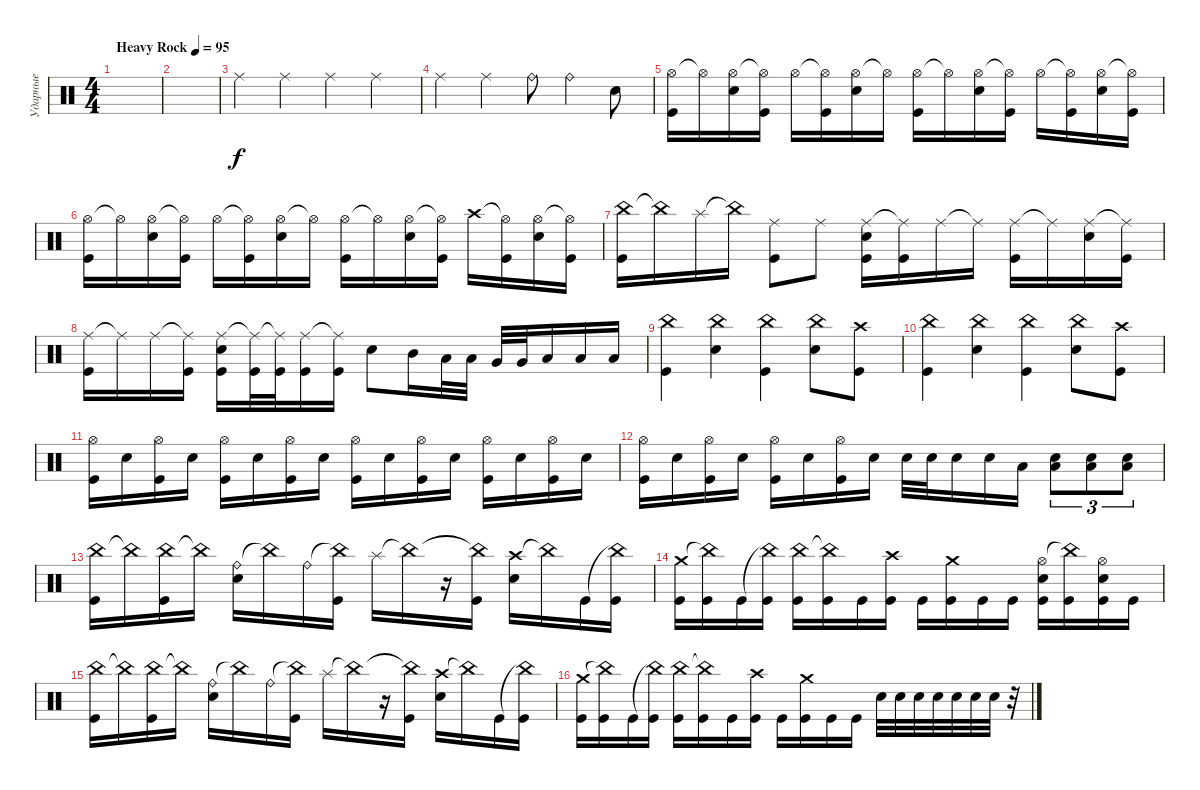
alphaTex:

\track ("Ударные" "Ударные") {instrument percussion}
\staff {score}
\articulation defaults
\ts (4 4)
\tempo (95 "Heavy Rock")
\clef neutral
\ks c
|
|
"Ride (middle)".4 "Ride (middle)".4 "Ride (middle)".4 "Ride (middle)".4 |
"Ride (middle)".4 "Ride (middle)".4 "Ride (bell)".8 "Ride (bell)".4 "Snare (hit) 2".8 |
("Hi-Hat (open)" "Kick (hit)").16 "Hi-Hat (open)"{t}.16 ("Hi-Hat (open)" "Snare (hit) 2").16 ("Hi-Hat (open)"{t} "Kick (hit)").16 "Hi-Hat (open)".16 ("Hi-Hat (open)"{t} "Kick (hit)").16 ("Hi-Hat (open)" "Snare (hit) 2").16 "Hi-Hat (open)"{t}.16 ("Hi-Hat (open)" "Kick (hit)").16 "Hi-Hat (open)"{t}.16 ("Hi-Hat (open)" "Snare (hit) 2").16 ("Hi-Hat (open)"{t} "Kick (hit)").16 "Hi-Hat (open)".16 ("Hi-Hat (open)"{t} "Kick (hit)").16 ("Hi-Hat (open)" "Snare (hit) 2").16 ("Hi-Hat (open)"{t} "Kick (hit)").16 |
("Hi-Hat (open)" "Kick (hit)").16 "Hi-Hat (open)"{t}.16 ("Hi-Hat (open)" "Snare (hit) 2").16 ("Hi-Hat (open)"{t} "Kick (hit)").16 "Hi-Hat (open)".16 ("Hi-Hat (open)"{t} "Kick (hit)").16 ("Hi-Hat (open)" "Snare (hit) 2").16 "Hi-Hat (open)"{t}.16 ("Hi-Hat (open)" "Kick (hit)").16 "Hi-Hat (open)"{t}.16 ("Hi-Hat (open)" "Snare (hit) 2").16 ("Hi-Hat (open)"{t} "Kick (hit)").16 "Crash high (hit)".16 ("Hi-Hat (open)"{t} "Kick (hit)").16 ("Hi-Hat (open)" "Snare (hit) 2").16 ("Hi-Hat (open)"{t} "Kick (hit)").16 |
("China (hit)" "Kick (hit)").16 "China (hit)"{t}.16 "Splash (hit)".16 "China (hit)"{t}.16 ("Ride (middle)" "Kick (hit)").8 "Ride (middle)".8 ("Ride (middle)" "Snare (hit) 2" "Kick (hit)").16 ("Ride (middle)"{t} "Kick (hit)").16 "Ride (middle)".16 "Ride (middle)"{t}.16 ("Ride (middle)" "Kick (hit)").16 "Ride (middle)"{t}.16 ("Ride (middle)" "Snare (hit) 2").16 ("Ride (middle)"{t} "Kick (hit)").16 |
("Ride (middle)" "Kick (hit)").16 "Ride (middle)"{t}.16 "Ride (middle)".16 ("Ride (middle)"{t} "Kick (hit)").16 ("Ride (middle)" "Snare (hit) 2" "Kick (hit)").16 ("Ride (middle)"{t} "Kick (hit)").32 ("Ride (middle)"{t} "Kick (hit)").32 ("Ride (middle)" "Kick (hit)").16 ("Ride (middle)"{t} "Kick (hit)").16 "Snare (hit) 2".8 "Mid Tom (hit)".16 "Low Tom (hit)".32 "Low Tom (hit)".32 "Very Low Tom (hit)".32 "Very Low Tom (hit)".32 "Low Floor Tom (hit)".16 "Low Floor Tom (hit)".16 "Low Floor Tom (hit)".16 |
("China (hit)" "Kick (hit)").4 ("China (hit)" "Snare (hit) 2").4 ("China (hit)" "Kick (hit)").4 ("China (hit)" "Snare (hit) 2").8 ("Crash high (hit)" "Kick (hit)").8 |
("China (hit)" "Kick (hit)").4 ("China (hit)" "Snare (hit) 2").4 ("China (hit)" "Kick (hit)").4 ("China (hit)" "Snare (hit) 2").8 ("Crash high (hit)" "Kick (hit)").8 |
("Hi-Hat (open)" "Kick (hit)").16 "Snare (hit) 2".16 ("Hi-Hat (open)" "Kick (hit)").16 "Snare (hit) 2".16 ("Hi-Hat (open)" "Kick (hit)").16 "Snare (hit) 2".16 ("Hi-Hat (open)" "Kick (hit)").16 "Snare (hit) 2".16 ("Hi-Hat (open)" "Kick (hit)").16 "Snare (hit) 2".16 ("Hi-Hat (open)" "Kick (hit)").16 "Snare (hit) 2".16 ("Hi-Hat (open)" "Kick (hit)").16 "Snare (hit) 2".16 ("Hi-Hat (open)" "Kick (hit)").16 "Snare (hit) 2".16 |
("Hi-Hat (open)" "Kick (hit)").16 "Snare (hit) 2".16 ("Hi-Hat (open)" "Kick (hit)").16 "Snare (hit) 2".16 ("Hi-Hat (open)" "Kick (hit)").16 "Snare (hit) 2".16 ("Hi-Hat (open)" "Kick (hit)").16 "Snare (hit) 2".16 "Snare (hit) 2".32 "Snare (hit) 2".32 "Snare (hit) 2".16 "Snare (hit) 2".16 "Low Tom (hit)".16 ("Snare (hit) 2" "Low Floor Tom (hit)").8{tu (3 2)} ("Snare (hit) 2" "Low Floor Tom (hit)").8{tu (3 2)} ("Snare (hit) 2" "Low Floor Tom (hit)").8{tu (3 2)} |
("China (hit)" "Kick (hit)").16 "China (hit)"{t}.16 ("China (hit)" "Kick (hit)").16 "China (hit)"{t}.16 ("Ride (bell)" "Snare (hit) 2").16 "China (hit)"{t}.16 "Ride (bell)".16 ("China (hit)"{t} "Kick (hit)").16 "Splash (hit)".16 "China (hit)"{t}.16 r.16 ("China (hit)"{t} "Kick (hit)").16 ("Crash high (hit)" "Snare (hit) 2").16 "China (hit)"{t}.16 "Kick (hit)".16 ("China (hit)"{t} "Kick (hit)").16 |
("Crash medium (hit)" "Kick (hit)").16 ("China (hit)"{t} "Kick (hit)").16 "Kick (hit)".16 ("China (hit)"{t} "Kick (hit)").16 ("China (hit)" "Kick (hit)").16 ("China (hit)"{t} "Kick (hit)").16 "Kick (hit)".16 ("Crash high (hit)" "Kick (hit)").16 "Kick (hit)".16 ("Crash medium (hit)" "Kick (hit)").16 "Kick (hit)".16 "Kick (hit)".16 ("Hi-Hat (open)" "Snare (hit) 2" "Kick (hit)").16 ("China (hit)"{t} "Kick (hit)").16 ("Hi-Hat (open)" "Snare (hit) 2" "Kick (hit)").16 "Kick (hit)".16 |
("China (hit)" "Kick (hit)").16 "China (hit)"{t}.16 ("China (hit)" "Kick (hit)").16 "China (hit)"{t}.16 ("Ride (bell)" "Snare (hit) 2").16 "China (hit)"{t}.16 "Ride (bell)".16 ("China (hit)"{t} "Kick (hit)").16 "Splash (hit)".16 "China (hit)"{t}.16 r.16 ("China (hit)"{t} "Kick (hit)").16 ("Crash high (hit)" "Snare (hit) 2").16 "China (hit)"{t}.16 "Kick (hit)".16 ("China (hit)"{t} "Kick (hit)").16 |
("Crash medium (hit)" "Kick (hit)").16 ("China (hit)"{t} "Kick (hit)").16 "Kick (hit)".16 ("China (hit)"{t} "Kick (hit)").16 ("China (hit)" "Kick (hit)").16 ("China (hit)"{t} "Kick (hit)").16 "Kick (hit)".16 ("Crash high (hit)" "Kick (hit)").16 "Kick (hit)".16 ("Crash medium (hit)" "Kick (hit)").16 "Kick (hit)".16 "Kick (hit)".16 "Snare (hit) 2".32 "Snare (hit) 2".32 "Snare (hit) 2".32 "Snare (hit) 2".32 "Snare (hit) 2".32 "Snare (hit) 2".32 "Snare (hit) 2".32 r.32
